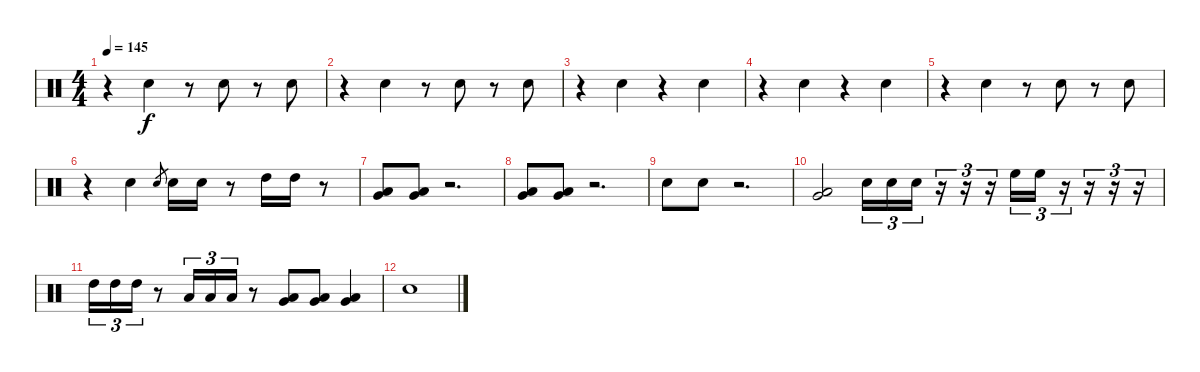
\track "" {instrument percussion}
\staff {score}
\articulation defaults
\ts (4 4)
\tempo 145
\clef neutral
\ks c
r.4{dy f} "Electric Snare (hit)".4 r.8 "Electric Snare (hit)".8 r.8 "Electric Snare (hit)".8 |
r.4 "Electric Snare (hit)".4 r.8 "Electric Snare (hit)".8 r.8 "Electric Snare (hit)".8 |
r.4 "Electric Snare (hit)".4 r.4 "Electric Snare (hit)".4 |
r.4 "Electric Snare (hit)".4 r.4 "Electric Snare (hit)".4 |
r.4 "Electric Snare (hit)".4 r.8 "Electric Snare (hit)".8 r.8 "Electric Snare (hit)".8 |
r.4 "Electric Snare (hit)".4 "Electric Snare (hit)".8{gr} "Electric Snare (hit)".16 "Electric Snare (hit)".16 r.8 "High Tom (hit)".16 "High Tom (hit)".16 r.8 |
("Low Tom (hit)" "Very Low Tom (hit)").8 ("Low Tom (hit)" "Very Low Tom (hit)").8 r.2{d} |
("Low Tom (hit)" "Very Low Tom (hit)").8 ("Low Tom (hit)" "Very Low Tom (hit)").8 r.2{d} |
"Electric Snare (hit)".8 "Electric Snare (hit)".8 r.2{d} |
("Low Tom (hit)" "Very Low Tom (hit)").2 "Electric Snare (hit)".16{tu (3 2)} "Electric Snare (hit)".16{tu (3 2)} "Electric Snare (hit)".16{tu (3 2)} r.16{tu (3 2)} r.16{tu (3 2)} r.16{tu (3 2)} "High Floor Tom (hit)".16{tu (3 2)} "High Floor Tom (hit)".16{tu (3 2)} r.16{tu (3 2)} r.16{tu (3 2)} r.16{tu (3 2)} r.16{tu (3 2)} |
"High Tom (hit)".16{tu (3 2)} "High Tom (hit)".16{tu (3 2)} "High Tom (hit)".16{tu (3 2)} r.8 "Low Tom (hit)".16{tu (3 2)} "Low Tom (hit)".16{tu (3 2)} "Low Tom (hit)".16{tu (3 2)} r.8 ("Low Tom (hit)" "Very Low Tom (hit)").8 ("Low Tom (hit)" "Very Low Tom (hit)").8 ("Low Tom (hit)" "Very Low Tom (hit)").4 |
"Electric Snare (hit)".1
